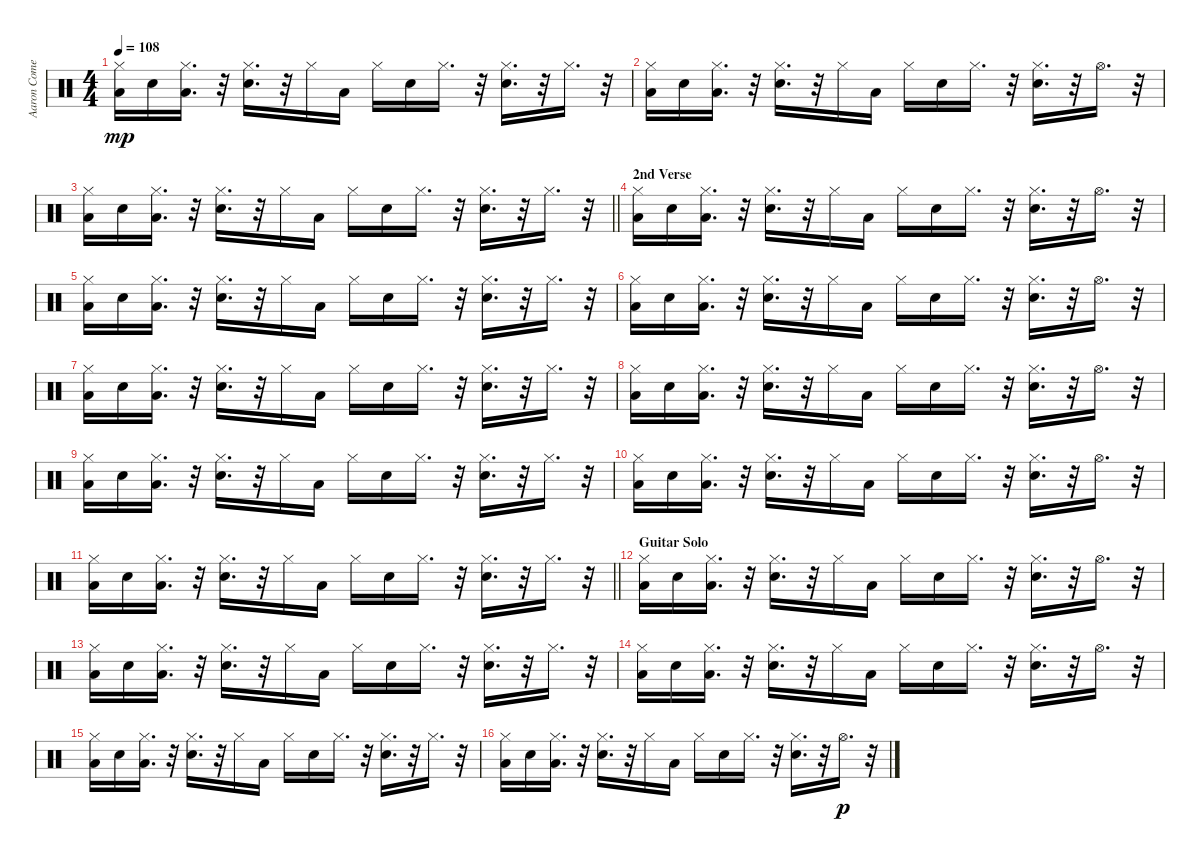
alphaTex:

\track ("Aaron Comess" "Aaron Come") {instrument percussion}
\staff {score}
\articulation defaults
\ts (4 4)
\tempo 108
\clef neutral
\ks c
("Low Tom (hit)" "Hi-Hat (closed)").16{dy mp} "Electric Snare (hit)".16 ("Low Tom (hit)" "Hi-Hat (closed)").16{d} r.32 ("Snare (hit) 2" "Hi-Hat (closed)").16{d} r.32 "Hi-Hat (closed)".16 "Low Tom (hit)".16 "Hi-Hat (closed)".16 "Snare (hit) 2".16 "Hi-Hat (closed)".16{d} r.32 ("Snare (hit) 2" "Hi-Hat (closed)").16{d} r.32 "Hi-Hat (closed)".16{d} r.32 |
("Low Tom (hit)" "Hi-Hat (closed)").16 "Electric Snare (hit)".16 ("Low Tom (hit)" "Hi-Hat (closed)").16{d} r.32 ("Snare (hit) 2" "Hi-Hat (closed)").16{d} r.32 "Hi-Hat (closed)".16 "Low Tom (hit)".16 "Hi-Hat (closed)".16 "Snare (hit) 2".16 "Hi-Hat (closed)".16{d} r.32 ("Snare (hit) 2" "Hi-Hat (closed)").16{d} r.32 "Hi-Hat (open)".16{d} r.32 |
\barLineRight lightlight
("Low Tom (hit)" "Hi-Hat (closed)").16 "Electric Snare (hit)".16 ("Low Tom (hit)" "Hi-Hat (closed)").16{d} r.32 ("Snare (hit) 2" "Hi-Hat (closed)").16{d} r.32 "Hi-Hat (closed)".16 "Low Tom (hit)".16 "Hi-Hat (closed)".16 "Snare (hit) 2".16 "Hi-Hat (closed)".16{d} r.32 ("Snare (hit) 2" "Hi-Hat (closed)").16{d} r.32 "Hi-Hat (closed)".16{d} r.32 |
\section ("" "2nd Verse")
("Low Tom (hit)" "Hi-Hat (closed)").16 "Electric Snare (hit)".16 ("Low Tom (hit)" "Hi-Hat (closed)").16{d} r.32 ("Snare (hit) 2" "Hi-Hat (closed)").16{d} r.32 "Hi-Hat (closed)".16 "Low Tom (hit)".16 "Hi-Hat (closed)".16 "Snare (hit) 2".16 "Hi-Hat (closed)".16{d} r.32 ("Snare (hit) 2" "Hi-Hat (closed)").16{d} r.32 "Hi-Hat (open)".16{d} r.32 |
("Low Tom (hit)" "Hi-Hat (closed)").16 "Electric Snare (hit)".16 ("Low Tom (hit)" "Hi-Hat (closed)").16{d} r.32 ("Snare (hit) 2" "Hi-Hat (closed)").16{d} r.32 "Hi-Hat (closed)".16 "Low Tom (hit)".16 "Hi-Hat (closed)".16 "Snare (hit) 2".16 "Hi-Hat (closed)".16{d} r.32 ("Snare (hit) 2" "Hi-Hat (closed)").16{d} r.32 "Hi-Hat (closed)".16{d} r.32 |
("Low Tom (hit)" "Hi-Hat (closed)").16 "Electric Snare (hit)".16 ("Low Tom (hit)" "Hi-Hat (closed)").16{d} r.32 ("Snare (hit) 2" "Hi-Hat (closed)").16{d} r.32 "Hi-Hat (closed)".16 "Low Tom (hit)".16 "Hi-Hat (closed)".16 "Snare (hit) 2".16 "Hi-Hat (closed)".16{d} r.32 ("Snare (hit) 2" "Hi-Hat (closed)").16{d} r.32 "Hi-Hat (open)".16{d} r.32 |
("Low Tom (hit)" "Hi-Hat (closed)").16 "Electric Snare (hit)".16 ("Low Tom (hit)" "Hi-Hat (closed)").16{d} r.32 ("Snare (hit) 2" "Hi-Hat (closed)").16{d} r.32 "Hi-Hat (closed)".16 "Low Tom (hit)".16 "Hi-Hat (closed)".16 "Snare (hit) 2".16 "Hi-Hat (closed)".16{d} r.32 ("Snare (hit) 2" "Hi-Hat (closed)").16{d} r.32 "Hi-Hat (closed)".16{d} r.32 |
("Low Tom (hit)" "Hi-Hat (closed)").16 "Electric Snare (hit)".16 ("Low Tom (hit)" "Hi-Hat (closed)").16{d} r.32 ("Snare (hit) 2" "Hi-Hat (closed)").16{d} r.32 "Hi-Hat (closed)".16 "Low Tom (hit)".16 "Hi-Hat (closed)".16 "Snare (hit) 2".16 "Hi-Hat (closed)".16{d} r.32 ("Snare (hit) 2" "Hi-Hat (closed)").16{d} r.32 "Hi-Hat (open)".16{d} r.32 |
("Low Tom (hit)" "Hi-Hat (closed)").16 "Electric Snare (hit)".16 ("Low Tom (hit)" "Hi-Hat (closed)").16{d} r.32 ("Snare (hit) 2" "Hi-Hat (closed)").16{d} r.32 "Hi-Hat (closed)".16 "Low Tom (hit)".16 "Hi-Hat (closed)".16 "Snare (hit) 2".16 "Hi-Hat (closed)".16{d} r.32 ("Snare (hit) 2" "Hi-Hat (closed)").16{d} r.32 "Hi-Hat (closed)".16{d} r.32 |
("Low Tom (hit)" "Hi-Hat (closed)").16 "Electric Snare (hit)".16 ("Low Tom (hit)" "Hi-Hat (closed)").16{d} r.32 ("Snare (hit) 2" "Hi-Hat (closed)").16{d} r.32 "Hi-Hat (closed)".16 "Low Tom (hit)".16 "Hi-Hat (closed)".16 "Snare (hit) 2".16 "Hi-Hat (closed)".16{d} r.32 ("Snare (hit) 2" "Hi-Hat (closed)").16{d} r.32 "Hi-Hat (open)".16{d} r.32 |
\barLineRight lightlight
("Low Tom (hit)" "Hi-Hat (closed)").16 "Electric Snare (hit)".16 ("Low Tom (hit)" "Hi-Hat (closed)").16{d} r.32 ("Snare (hit) 2" "Hi-Hat (closed)").16{d} r.32 "Hi-Hat (closed)".16 "Low Tom (hit)".16 "Hi-Hat (closed)".16 "Snare (hit) 2".16 "Hi-Hat (closed)".16{d} r.32 ("Snare (hit) 2" "Hi-Hat (closed)").16{d} r.32 "Hi-Hat (closed)".16{d} r.32 |
\section ("" "Guitar Solo")
("Low Tom (hit)" "Hi-Hat (closed)").16 "Electric Snare (hit)".16 ("Low Tom (hit)" "Hi-Hat (closed)").16{d} r.32 ("Snare (hit) 2" "Hi-Hat (closed)").16{d} r.32 "Hi-Hat (closed)".16 "Low Tom (hit)".16 "Hi-Hat (closed)".16 "Snare (hit) 2".16 "Hi-Hat (closed)".16{d} r.32 ("Snare (hit) 2" "Hi-Hat (closed)").16{d} r.32 "Hi-Hat (open)".16{d} r.32 |
("Low Tom (hit)" "Hi-Hat (closed)").16 "Electric Snare (hit)".16 ("Low Tom (hit)" "Hi-Hat (closed)").16{d} r.32 ("Snare (hit) 2" "Hi-Hat (closed)").16{d} r.32 "Hi-Hat (closed)".16 "Low Tom (hit)".16 "Hi-Hat (closed)".16 "Snare (hit) 2".16 "Hi-Hat (closed)".16{d} r.32 ("Snare (hit) 2" "Hi-Hat (closed)").16{d} r.32 "Hi-Hat (closed)".16{d} r.32 |
("Low Tom (hit)" "Hi-Hat (closed)").16 "Electric Snare (hit)".16 ("Low Tom (hit)" "Hi-Hat (closed)").16{d} r.32 ("Snare (hit) 2" "Hi-Hat (closed)").16{d} r.32 "Hi-Hat (closed)".16 "Low Tom (hit)".16 "Hi-Hat (closed)".16 "Snare (hit) 2".16 "Hi-Hat (closed)".16{d} r.32 ("Snare (hit) 2" "Hi-Hat (closed)").16{d} r.32 "Hi-Hat (open)".16{d} r.32 |
("Low Tom (hit)" "Hi-Hat (closed)").16 "Electric Snare (hit)".16 ("Low Tom (hit)" "Hi-Hat (closed)").16{d} r.32 ("Snare (hit) 2" "Hi-Hat (closed)").16{d} r.32 "Hi-Hat (closed)".16 "Low Tom (hit)".16 "Hi-Hat (closed)".16 "Snare (hit) 2".16 "Hi-Hat (closed)".16{d} r.32 ("Snare (hit) 2" "Hi-Hat (closed)").16{d} r.32 "Hi-Hat (closed)".16{d} r.32 |
("Low Tom (hit)" "Hi-Hat (closed)").16 "Electric Snare (hit)".16 ("Low Tom (hit)" "Hi-Hat (closed)").16{d} r.32 ("Snare (hit) 2" "Hi-Hat (closed)").16{d} r.32 "Hi-Hat (closed)".16 "Low Tom (hit)".16 "Hi-Hat (closed)".16 "Snare (hit) 2".16 "Hi-Hat (closed)".16{d} r.32 ("Snare (hit) 2" "Hi-Hat (closed)").16{d} r.32 "Hi-Hat (open)".16{d dy p} r.32
